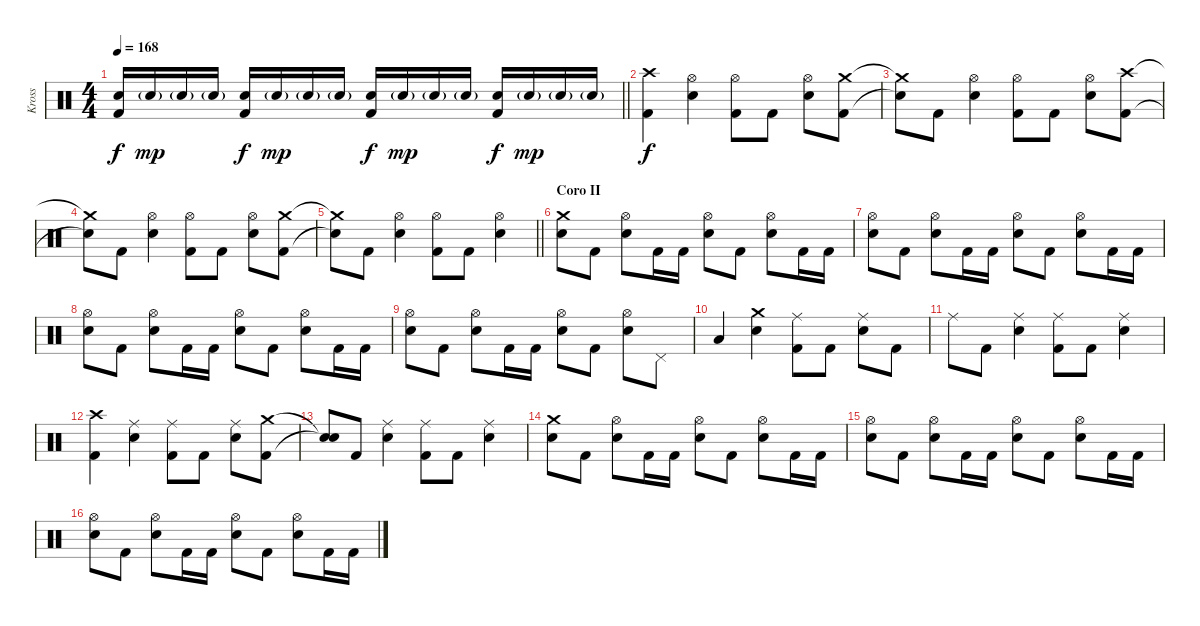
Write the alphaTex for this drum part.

\track ("Kross" "Kross") {instrument percussion}
\staff
\articulation defaults
\ts (4 4)
\tempo 168
\clef neutral
\barLineRight lightlight
\ks c
("Electric Snare (hit)" "Kick (hit) 2").16{dy f} "Electric Snare (hit)"{g}.16{dy mp} "Electric Snare (hit)"{g}.16 "Electric Snare (hit)"{g}.16 ("Electric Snare (hit)" "Kick (hit) 2").16{dy f} "Electric Snare (hit)"{g}.16{dy mp} "Electric Snare (hit)"{g}.16 "Electric Snare (hit)"{g}.16 ("Electric Snare (hit)" "Kick (hit) 2").16{dy f} "Electric Snare (hit)"{g}.16{dy mp} "Electric Snare (hit)"{g}.16 "Electric Snare (hit)"{g}.16 ("Electric Snare (hit)" "Kick (hit) 2").16{dy f} "Electric Snare (hit)"{g}.16{dy mp} "Electric Snare (hit)"{g}.16 "Electric Snare (hit)"{g}.16 |
("Crash high (hit)" "Kick (hit) 2").4{dy f volume 14} ("Hi-Hat (open)" "Electric Snare (hit)").4 ("Hi-Hat (open)" "Kick (hit) 2").8 "Kick (hit) 2".8 ("Hi-Hat (open)" "Electric Snare (hit)").8 ("Crash medium (hit)" "Kick (hit) 2").8 |
("Crash medium (hit)"{t} "Snare (hit)"{t}).8 "Kick (hit) 2".8 ("Hi-Hat (open)" "Electric Snare (hit)").4 ("Hi-Hat (open)" "Kick (hit) 2").8 "Kick (hit) 2".8 ("Hi-Hat (open)" "Electric Snare (hit)").8 ("Crash high (hit)" "Kick (hit) 2").8 |
("Crash medium (hit)"{t} "Snare (hit)"{t}).8 "Kick (hit) 2".8 ("Hi-Hat (open)" "Electric Snare (hit)").4 ("Hi-Hat (open)" "Kick (hit) 2").8 "Kick (hit) 2".8 ("Hi-Hat (open)" "Electric Snare (hit)").8 ("Crash medium (hit)" "Kick (hit) 2").8 |
\barLineRight lightlight
("Crash medium (hit)"{t} "Snare (hit)"{t}).8 "Kick (hit) 2".8 ("Hi-Hat (open)" "Electric Snare (hit)").4 ("Hi-Hat (open)" "Kick (hit) 2").8 "Kick (hit) 2".8 ("Hi-Hat (open)" "Electric Snare (hit)").4 |
\section ("" "Coro II")
("Crash medium (hit)" "Electric Snare (hit)").8 "Kick (hit) 2".8 ("Hi-Hat (open)" "Electric Snare (hit)").8 "Kick (hit) 2".16 "Kick (hit) 2".16 ("Hi-Hat (open)" "Electric Snare (hit)").8 "Kick (hit) 2".8 ("Hi-Hat (open)" "Electric Snare (hit)").8 "Kick (hit) 2".16 "Kick (hit) 2".16 |
("Hi-Hat (open)" "Electric Snare (hit)").8 "Kick (hit) 2".8 ("Hi-Hat (open)" "Electric Snare (hit)").8 "Kick (hit) 2".16 "Kick (hit) 2".16 ("Hi-Hat (open)" "Electric Snare (hit)").8 "Kick (hit) 2".8 ("Hi-Hat (open)" "Electric Snare (hit)").8 "Kick (hit) 2".16 "Kick (hit) 2".16 |
("Hi-Hat (open)" "Electric Snare (hit)").8 "Kick (hit) 2".8 ("Hi-Hat (open)" "Electric Snare (hit)").8 "Kick (hit) 2".16 "Kick (hit) 2".16 ("Hi-Hat (open)" "Electric Snare (hit)").8 "Kick (hit) 2".8 ("Hi-Hat (open)" "Electric Snare (hit)").8 "Kick (hit) 2".16 "Kick (hit) 2".16 |
("Hi-Hat (open)" "Electric Snare (hit)").8 "Kick (hit) 2".8 ("Hi-Hat (open)" "Electric Snare (hit)").8 "Kick (hit) 2".16 "Kick (hit) 2".16 ("Hi-Hat (open)" "Electric Snare (hit)").8 "Kick (hit) 2".8 ("Hi-Hat (open)" "Electric Snare (hit)").8 "Pedal Hi-Hat (hit)".8 |
"Low Tom (hit)".4 ("Crash medium (hit)" "Electric Snare (hit)").4 ("Ride (middle)" "Kick (hit) 2").8 "Kick (hit) 2".8 ("Ride (middle)" "Electric Snare (hit)").8 "Kick (hit) 2".8 |
"Ride (middle)".8 "Kick (hit) 2".8 ("Ride (middle)" "Electric Snare (hit)").4 ("Ride (middle)" "Kick (hit) 2").8 "Kick (hit) 2".8 ("Ride (middle)" "Electric Snare (hit)").4 |
("Crash high (hit)" "Kick (hit) 2").4 ("Ride (middle)" "Electric Snare (hit)").4 ("Ride (middle)" "Kick (hit) 2").8 "Kick (hit) 2".8 ("Ride (middle)" "Electric Snare (hit)").8 ("Crash medium (hit)" "Kick (hit) 2").8 |
("Snare (hit)"{t} "Snare (hit)"{t}).8 "Kick (hit) 2".8 ("Ride (middle)" "Electric Snare (hit)").4 ("Ride (middle)" "Kick (hit) 2").8 "Kick (hit) 2".8 ("Ride (middle)" "Electric Snare (hit)").4 |
("Crash medium (hit)" "Electric Snare (hit)").8 "Kick (hit) 2".8 ("Hi-Hat (open)" "Electric Snare (hit)").8 "Kick (hit) 2".16 "Kick (hit) 2".16 ("Hi-Hat (open)" "Electric Snare (hit)").8 "Kick (hit) 2".8 ("Hi-Hat (open)" "Electric Snare (hit)").8 "Kick (hit) 2".16 "Kick (hit) 2".16 |
("Hi-Hat (open)" "Electric Snare (hit)").8 "Kick (hit) 2".8 ("Hi-Hat (open)" "Electric Snare (hit)").8 "Kick (hit) 2".16 "Kick (hit) 2".16 ("Hi-Hat (open)" "Electric Snare (hit)").8 "Kick (hit) 2".8 ("Hi-Hat (open)" "Electric Snare (hit)").8 "Kick (hit) 2".16 "Kick (hit) 2".16 |
("Hi-Hat (open)" "Electric Snare (hit)").8 "Kick (hit) 2".8 ("Hi-Hat (open)" "Electric Snare (hit)").8 "Kick (hit) 2".16 "Kick (hit) 2".16 ("Hi-Hat (open)" "Electric Snare (hit)").8 "Kick (hit) 2".8 ("Hi-Hat (open)" "Electric Snare (hit)").8 "Kick (hit) 2".16 "Kick (hit) 2".16
